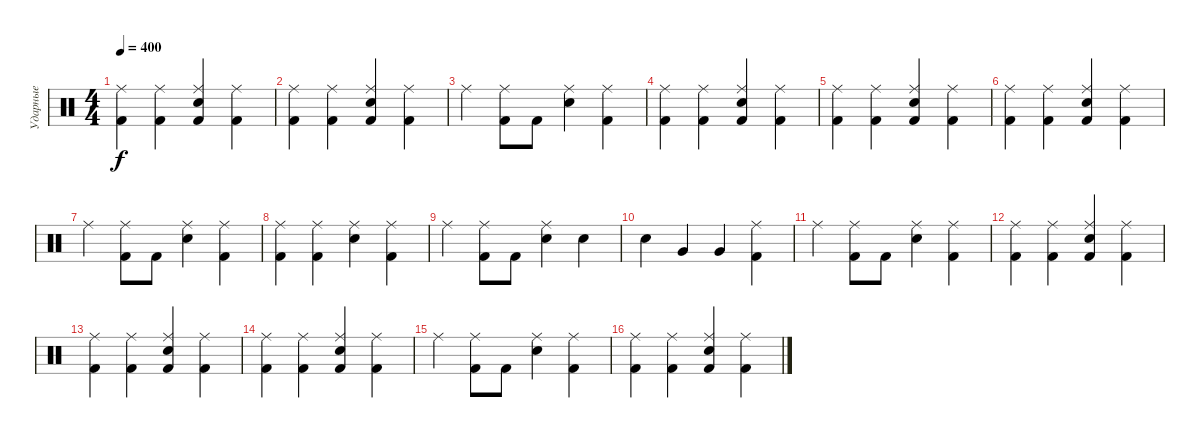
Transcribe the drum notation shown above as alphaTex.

\track ("Ударные" "Ударные") {instrument percussion}
\staff {score}
\articulation defaults
\ts (4 4)
\tempo 400
\clef neutral
\ks c
("Kick (hit) 2" "Ride (middle)").4{dy f} ("Kick (hit) 2" "Ride (middle)").4 ("Kick (hit) 2" "Ride (middle)" "Electric Snare (hit)").4 ("Kick (hit) 2" "Ride (middle)").4 |
("Kick (hit) 2" "Ride (middle)").4 ("Kick (hit) 2" "Ride (middle)").4 ("Kick (hit) 2" "Ride (middle)" "Electric Snare (hit)").4 ("Kick (hit) 2" "Ride (middle)").4 |
"Ride (middle)".4 ("Kick (hit) 2" "Ride (middle)").8 "Kick (hit) 2".8 ("Electric Snare (hit)" "Ride (middle)").4 ("Kick (hit) 2" "Ride (middle)").4 |
("Kick (hit) 2" "Ride (middle)").4 ("Kick (hit) 2" "Ride (middle)").4 ("Kick (hit) 2" "Ride (middle)" "Electric Snare (hit)").4 ("Kick (hit) 2" "Ride (middle)").4 |
("Kick (hit) 2" "Ride (middle)").4 ("Kick (hit) 2" "Ride (middle)").4 ("Kick (hit) 2" "Ride (middle)" "Electric Snare (hit)").4 ("Kick (hit) 2" "Ride (middle)").4 |
("Kick (hit) 2" "Ride (middle)").4 ("Kick (hit) 2" "Ride (middle)").4 ("Kick (hit) 2" "Ride (middle)" "Electric Snare (hit)").4 ("Kick (hit) 2" "Ride (middle)").4 |
"Ride (middle)".4 ("Kick (hit) 2" "Ride (middle)").8 "Kick (hit) 2".8 ("Electric Snare (hit)" "Ride (middle)").4 ("Kick (hit) 2" "Ride (middle)").4 |
("Kick (hit) 2" "Ride (middle)").4 ("Kick (hit) 2" "Ride (middle)").4 ("Electric Snare (hit)" "Ride (middle)").4 ("Kick (hit) 2" "Ride (middle)").4 |
"Ride (middle)".4 ("Kick (hit) 2" "Ride (middle)").8 "Kick (hit) 2".8 ("Electric Snare (hit)" "Ride (middle)").4 "Snare (hit) 2".4 |
"Snare (hit) 2".4 "Very Low Tom (hit)".4 "Very Low Tom (hit)".4 ("Kick (hit) 2" "Ride (middle)").4 |
"Ride (middle)".4 ("Kick (hit) 2" "Ride (middle)").8 "Kick (hit) 2".8 ("Electric Snare (hit)" "Ride (middle)").4 ("Kick (hit) 2" "Ride (middle)").4 |
("Kick (hit) 2" "Ride (middle)").4 ("Kick (hit) 2" "Ride (middle)").4 ("Kick (hit) 2" "Ride (middle)" "Electric Snare (hit)").4 ("Kick (hit) 2" "Ride (middle)").4 |
("Kick (hit) 2" "Ride (middle)").4 ("Kick (hit) 2" "Ride (middle)").4 ("Kick (hit) 2" "Ride (middle)" "Electric Snare (hit)").4 ("Kick (hit) 2" "Ride (middle)").4 |
("Kick (hit) 2" "Ride (middle)").4 ("Kick (hit) 2" "Ride (middle)").4 ("Kick (hit) 2" "Ride (middle)" "Electric Snare (hit)").4 ("Kick (hit) 2" "Ride (middle)").4 |
"Ride (middle)".4 ("Kick (hit) 2" "Ride (middle)").8 "Kick (hit) 2".8 ("Electric Snare (hit)" "Ride (middle)").4 ("Kick (hit) 2" "Ride (middle)").4 |
("Kick (hit) 2" "Ride (middle)").4 ("Kick (hit) 2" "Ride (middle)").4 ("Kick (hit) 2" "Ride (middle)" "Electric Snare (hit)").4 ("Kick (hit) 2" "Ride (middle)").4
